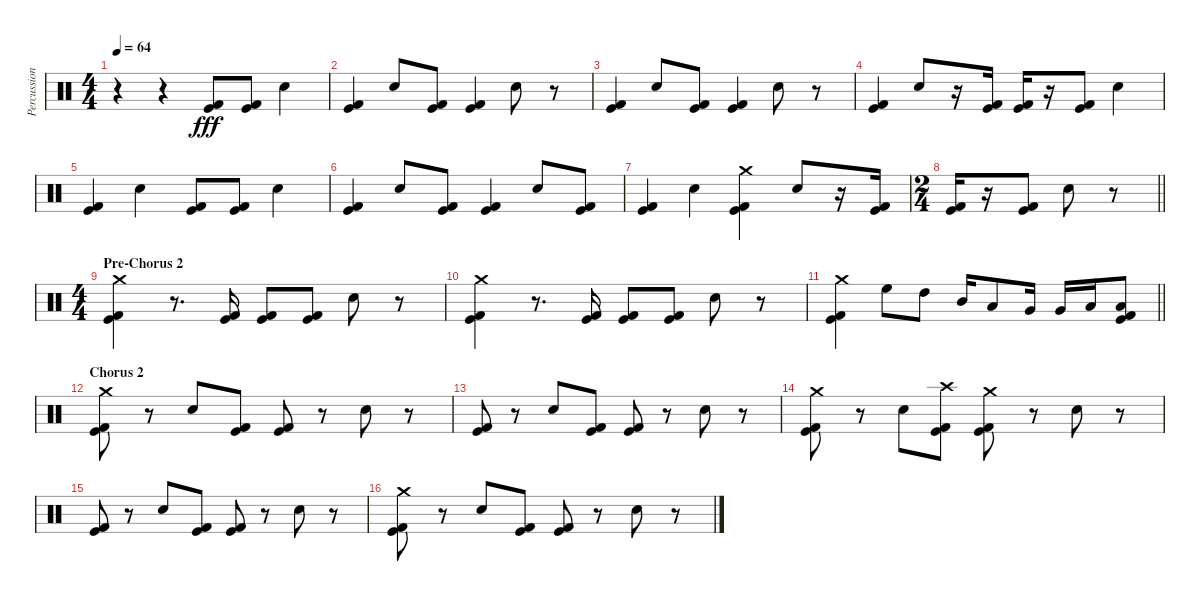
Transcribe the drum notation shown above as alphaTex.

\track ("Percussion" "Percussion") {instrument percussion}
\staff {score}
\articulation defaults
\ts (4 4)
\tempo 64
\clef neutral
\ks c
r.4{dy fff} r.4 ("Kick (hit) 2" "Kick (hit)").8 ("Kick (hit) 2" "Kick (hit)").8 "Snare (hit) 2".4 |
("Kick (hit) 2" "Kick (hit)").4 "Snare (hit) 2".8 ("Kick (hit) 2" "Kick (hit)").8 ("Kick (hit) 2" "Kick (hit)").4 "Snare (hit) 2".8 r.8 |
("Kick (hit) 2" "Kick (hit)").4 "Snare (hit) 2".8 ("Kick (hit) 2" "Kick (hit)").8 ("Kick (hit) 2" "Kick (hit)").4 "Snare (hit) 2".8 r.8 |
("Kick (hit) 2" "Kick (hit)").4 "Snare (hit) 2".8 r.16 ("Kick (hit) 2" "Kick (hit)").16 ("Kick (hit) 2" "Kick (hit)").16 r.16 ("Kick (hit) 2" "Kick (hit)").8 "Snare (hit) 2".4 |
("Kick (hit) 2" "Kick (hit)").4 "Snare (hit) 2".4 ("Kick (hit) 2" "Kick (hit)").8 ("Kick (hit) 2" "Kick (hit)").8 "Snare (hit) 2".4 |
("Kick (hit) 2" "Kick (hit)").4 "Snare (hit) 2".8 ("Kick (hit) 2" "Kick (hit)").8 ("Kick (hit) 2" "Kick (hit)").4 "Snare (hit) 2".8 ("Kick (hit) 2" "Kick (hit)").8 |
("Kick (hit) 2" "Kick (hit)").4 "Snare (hit) 2".4 ("Crash medium (hit)" "Kick (hit) 2" "Kick (hit)").4 "Snare (hit) 2".8 r.16 ("Kick (hit) 2" "Kick (hit)").16 |
\ts (2 4)
\barLineRight lightlight
("Kick (hit) 2" "Kick (hit)").16 r.16 ("Kick (hit) 2" "Kick (hit)").8 "Snare (hit) 2".8 r.8 |
\ts (4 4)
\section ("" "Pre-Chorus 2")
("Crash medium (hit)" "Kick (hit) 2" "Kick (hit)").4 r.8{d} ("Kick (hit) 2" "Kick (hit)").16 ("Kick (hit) 2" "Kick (hit)").8 ("Kick (hit) 2" "Kick (hit)").8 "Snare (hit) 2".8 r.8 |
("Crash medium (hit)" "Kick (hit) 2" "Kick (hit)").4 r.8{d} ("Kick (hit) 2" "Kick (hit)").16 ("Kick (hit) 2" "Kick (hit)").8 ("Kick (hit) 2" "Kick (hit)").8 "Snare (hit) 2".8 r.8 |
\barLineRight lightlight
("Crash medium (hit)" "Kick (hit) 2" "Kick (hit)").4 "High Floor Tom (hit)".8 "High Tom (hit)".8 "Mid Tom (hit)".16 "Low Tom (hit)".8 "Very Low Tom (hit)".16 "Very Low Tom (hit)".16 "Low Floor Tom (hit)".16 ("Low Floor Tom (hit)" "Kick (hit) 2" "Kick (hit)").8 |
\section ("" "Chorus 2")
("Crash medium (hit)" "Kick (hit) 2" "Kick (hit)").8 r.8 "Snare (hit) 2".8 ("Kick (hit) 2" "Kick (hit)").8 ("Kick (hit) 2" "Kick (hit)").8 r.8 "Snare (hit) 2".8 r.8 |
("Kick (hit) 2" "Kick (hit)").8 r.8 "Snare (hit) 2".8 ("Kick (hit) 2" "Kick (hit)").8 ("Kick (hit) 2" "Kick (hit)").8 r.8 "Snare (hit) 2".8 r.8 |
("Crash medium (hit)" "Kick (hit) 2" "Kick (hit)").8 r.8 "Snare (hit) 2".8 ("Crash high (hit)" "Kick (hit) 2" "Kick (hit)").8 ("Crash medium (hit)" "Kick (hit) 2" "Kick (hit)").8 r.8 "Snare (hit) 2".8 r.8 |
("Kick (hit) 2" "Kick (hit)").8 r.8 "Snare (hit) 2".8 ("Kick (hit) 2" "Kick (hit)").8 ("Kick (hit) 2" "Kick (hit)").8 r.8 "Snare (hit) 2".8 r.8 |
("Crash medium (hit)" "Kick (hit) 2" "Kick (hit)").8 r.8 "Snare (hit) 2".8 ("Kick (hit) 2" "Kick (hit)").8 ("Kick (hit) 2" "Kick (hit)").8 r.8 "Snare (hit) 2".8 r.8
